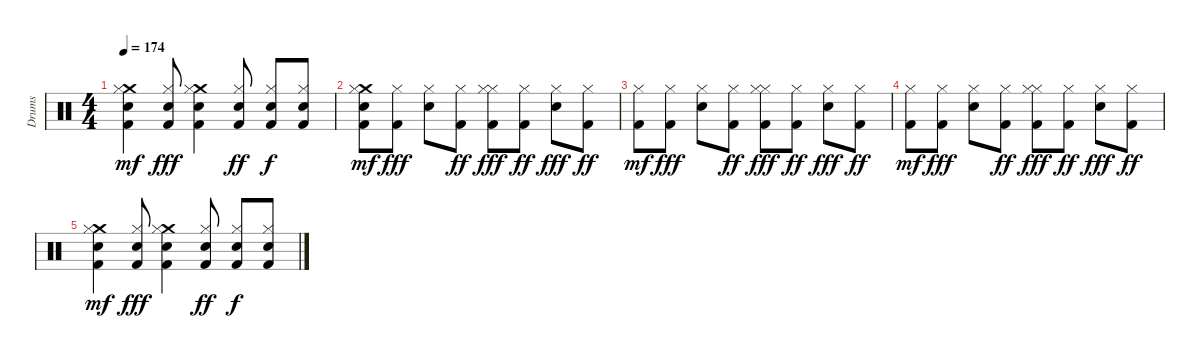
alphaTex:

\track ("Drums" "Drums") {instrument percussion}
\staff {score}
\articulation defaults
\ts (4 4)
\tempo 174
\clef neutral
\ks c
("Crash medium (hit)" "Snare (hit) 2" "Hi-Hat (closed)" "Kick (hit) 2").4{dy mf} ("Hi-Hat (closed)" "Snare (hit) 2" "Kick (hit) 2").8{dy fff} ("Crash medium (hit)" "Snare (hit) 2" "Hi-Hat (closed)" "Kick (hit) 2").4 ("Hi-Hat (closed)" "Snare (hit) 2" "Kick (hit) 2").8{dy ff} ("Snare (hit) 2" "Hi-Hat (closed)" "Kick (hit) 2").8{dy f} ("Snare (hit) 2" "Hi-Hat (closed)" "Kick (hit) 2").8 |
("Crash medium (hit)" "Snare (hit) 2" "Hi-Hat (closed)" "Kick (hit) 2").8{dy mf} ("Hi-Hat (closed)" "Kick (hit) 2").8{dy fff} ("Hi-Hat (closed)" "Snare (hit) 2").8 ("Hi-Hat (closed)" "Kick (hit) 2").8{dy ff} ("Hi-Hat (closed)" "Hi-Hat (closed)" "Kick (hit) 2").8{dy fff} ("Hi-Hat (closed)" "Kick (hit) 2").8{dy ff} ("Hi-Hat (closed)" "Snare (hit) 2").8{dy fff} ("Hi-Hat (closed)" "Kick (hit) 2").8{dy ff} |
("Kick (hit) 2" "Hi-Hat (closed)").8{dy mf} ("Hi-Hat (closed)" "Kick (hit) 2").8{dy fff} ("Hi-Hat (closed)" "Snare (hit) 2").8 ("Hi-Hat (closed)" "Kick (hit) 2").8{dy ff} ("Hi-Hat (closed)" "Hi-Hat (closed)" "Kick (hit) 2").8{dy fff} ("Hi-Hat (closed)" "Kick (hit) 2").8{dy ff} ("Hi-Hat (closed)" "Snare (hit) 2").8{dy fff} ("Hi-Hat (closed)" "Kick (hit) 2").8{dy ff} |
("Kick (hit) 2" "Hi-Hat (closed)").8{dy mf} ("Hi-Hat (closed)" "Kick (hit) 2").8{dy fff} ("Hi-Hat (closed)" "Snare (hit) 2").8 ("Hi-Hat (closed)" "Kick (hit) 2").8{dy ff} ("Hi-Hat (closed)" "Hi-Hat (closed)" "Kick (hit) 2").8{dy fff} ("Hi-Hat (closed)" "Kick (hit) 2").8{dy ff} ("Hi-Hat (closed)" "Snare (hit) 2").8{dy fff} ("Hi-Hat (closed)" "Kick (hit) 2").8{dy ff} |
("Crash medium (hit)" "Snare (hit) 2" "Hi-Hat (closed)" "Kick (hit) 2").4{dy mf} ("Hi-Hat (closed)" "Snare (hit) 2" "Kick (hit) 2").8{dy fff} ("Crash medium (hit)" "Snare (hit) 2" "Hi-Hat (closed)" "Kick (hit) 2").4 ("Hi-Hat (closed)" "Snare (hit) 2" "Kick (hit) 2").8{dy ff} ("Snare (hit) 2" "Hi-Hat (closed)" "Kick (hit) 2").8{dy f} ("Snare (hit) 2" "Hi-Hat (closed)" "Kick (hit) 2").8
